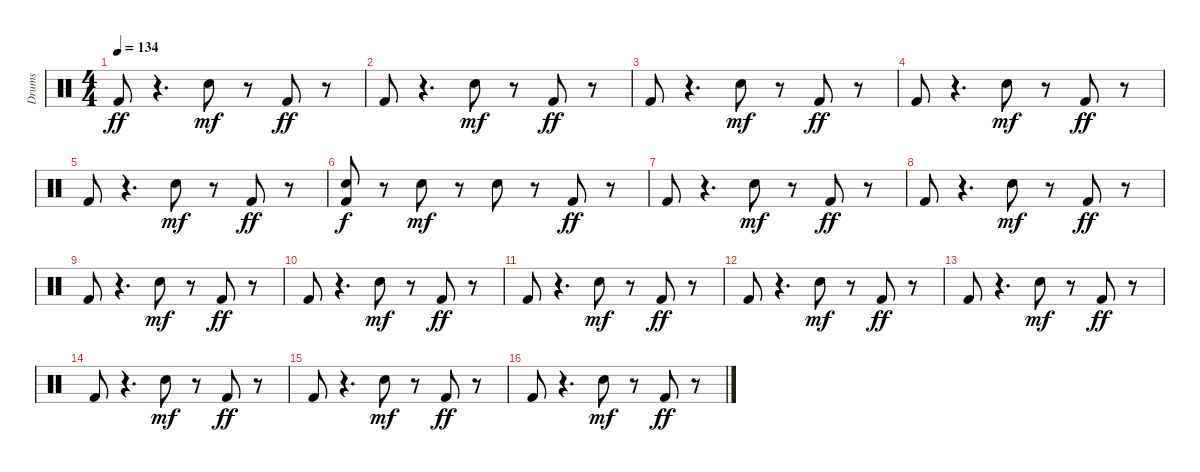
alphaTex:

\track ("Drums" "Drums") {instrument percussion}
\staff {score}
\articulation defaults
\ts (4 4)
\tempo 134
\clef neutral
\ks c "Kick (hit) 2".8{dy ff}
r.4{d} "Electric Snare (hit)".8{dy mf} r.8 "Kick (hit) 2".8{dy ff} r.8 |
"Kick (hit) 2".8 r.4{d} "Electric Snare (hit)".8{dy mf} r.8 "Kick (hit) 2".8{dy ff} r.8 |
"Kick (hit) 2".8 r.4{d} "Electric Snare (hit)".8{dy mf} r.8 "Kick (hit) 2".8{dy ff} r.8 |
"Kick (hit) 2".8 r.4{d} "Electric Snare (hit)".8{dy mf} r.8 "Kick (hit) 2".8{dy ff} r.8 |
"Kick (hit) 2".8 r.4{d} "Electric Snare (hit)".8{dy mf} r.8 "Kick (hit) 2".8{dy ff} r.8 |
("Kick (hit) 2" "Electric Snare (hit)").8{dy f} r.8 "Electric Snare (hit)".8{dy mf} r.8 "Electric Snare (hit)".8 r.8 "Kick (hit) 2".8{dy ff} r.8 |
"Kick (hit) 2".8 r.4{d} "Electric Snare (hit)".8{dy mf} r.8 "Kick (hit) 2".8{dy ff} r.8 |
"Kick (hit) 2".8 r.4{d} "Electric Snare (hit)".8{dy mf} r.8 "Kick (hit) 2".8{dy ff} r.8 |
"Kick (hit) 2".8 r.4{d} "Electric Snare (hit)".8{dy mf} r.8 "Kick (hit) 2".8{dy ff} r.8 |
"Kick (hit) 2".8 r.4{d} "Electric Snare (hit)".8{dy mf} r.8 "Kick (hit) 2".8{dy ff} r.8 |
"Kick (hit) 2".8 r.4{d} "Electric Snare (hit)".8{dy mf} r.8 "Kick (hit) 2".8{dy ff} r.8 |
"Kick (hit) 2".8 r.4{d} "Electric Snare (hit)".8{dy mf} r.8 "Kick (hit) 2".8{dy ff} r.8 |
"Kick (hit) 2".8 r.4{d} "Electric Snare (hit)".8{dy mf} r.8 "Kick (hit) 2".8{dy ff} r.8 |
"Kick (hit) 2".8 r.4{d} "Electric Snare (hit)".8{dy mf} r.8 "Kick (hit) 2".8{dy ff} r.8 |
"Kick (hit) 2".8 r.4{d} "Electric Snare (hit)".8{dy mf} r.8 "Kick (hit) 2".8{dy ff} r.8 |
"Kick (hit) 2".8 r.4{d} "Electric Snare (hit)".8{dy mf} r.8 "Kick (hit) 2".8{dy ff} r.8
